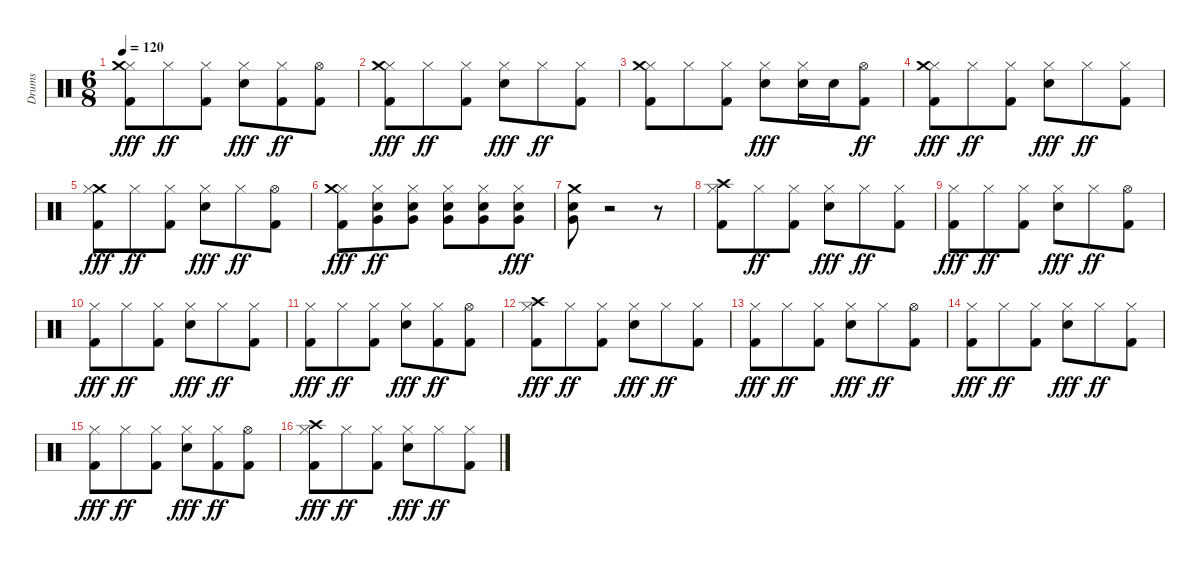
\track ("Drums" "Drums") {instrument percussion}
\staff {score}
\articulation defaults
\ts (6 8)
\tempo 120
\clef neutral
\ks c
("Hi-Hat (closed)" "Kick (hit) 2" "Crash medium (hit)").8{dy fff} "Hi-Hat (closed)".8{dy ff} ("Hi-Hat (closed)" "Kick (hit) 2").8 ("Hi-Hat (closed)" "Snare (hit) 2").8{dy fff} ("Hi-Hat (closed)" "Kick (hit) 2").8{dy ff} ("Hi-Hat (open)" "Kick (hit) 2").8 |
("Hi-Hat (closed)" "Kick (hit) 2" "Crash medium (hit)").8{dy fff} "Hi-Hat (closed)".8{dy ff} ("Hi-Hat (closed)" "Kick (hit) 2").8 ("Hi-Hat (closed)" "Snare (hit) 2").8{dy fff} "Hi-Hat (closed)".8{dy ff} ("Hi-Hat (closed)" "Kick (hit) 2").8 |
("Hi-Hat (closed)" "Kick (hit) 2" "Crash medium (hit)").8 "Hi-Hat (closed)".8 ("Hi-Hat (closed)" "Kick (hit) 2").8 ("Hi-Hat (closed)" "Snare (hit) 2").8{dy fff} ("Hi-Hat (closed)" "Snare (hit) 2").16 "Snare (hit) 2".16 ("Hi-Hat (open)" "Kick (hit) 2").8{dy ff} |
("Hi-Hat (closed)" "Kick (hit) 2" "Crash medium (hit)").8{dy fff} "Hi-Hat (closed)".8{dy ff} ("Hi-Hat (closed)" "Kick (hit) 2").8 ("Hi-Hat (closed)" "Snare (hit) 2").8{dy fff} "Hi-Hat (closed)".8{dy ff} ("Hi-Hat (closed)" "Kick (hit) 2").8 |
("Crash medium (hit)" "Hi-Hat (closed)" "Kick (hit) 2").8{dy fff} "Hi-Hat (closed)".8{dy ff} ("Hi-Hat (closed)" "Kick (hit) 2").8 ("Hi-Hat (closed)" "Snare (hit) 2").8{dy fff} "Hi-Hat (closed)".8{dy ff} ("Hi-Hat (open)" "Kick (hit) 2").8 |
("Hi-Hat (closed)" "Kick (hit) 2" "Crash medium (hit)").8{dy fff} ("Hi-Hat (closed)" "Snare (hit) 2" "Very Low Tom (hit)").8{dy ff} ("Hi-Hat (closed)" "Very Low Tom (hit)" "Snare (hit) 2").8 ("Hi-Hat (closed)" "Very Low Tom (hit)" "Snare (hit) 2").8 ("Hi-Hat (closed)" "Very Low Tom (hit)" "Snare (hit) 2").8 ("Hi-Hat (closed)" "Very Low Tom (hit)" "Snare (hit) 2").8{dy fff} |
("Crash medium (hit)" "Very Low Tom (hit)" "Snare (hit) 2").8 r.2 r.8 |
("Hi-Hat (closed)" "Kick (hit) 2" "Crash high (hit)").8 "Hi-Hat (closed)".8{dy ff} ("Hi-Hat (closed)" "Kick (hit) 2").8 ("Hi-Hat (closed)" "Snare (hit) 2").8{dy fff} "Hi-Hat (closed)".8{dy ff} ("Hi-Hat (closed)" "Kick (hit) 2").8 |
("Hi-Hat (closed)" "Kick (hit) 2").8{dy fff} "Hi-Hat (closed)".8{dy ff} ("Hi-Hat (closed)" "Kick (hit) 2").8 ("Hi-Hat (closed)" "Snare (hit) 2").8{dy fff} "Hi-Hat (closed)".8{dy ff} ("Hi-Hat (open)" "Kick (hit) 2").8 |
("Hi-Hat (closed)" "Kick (hit) 2").8{dy fff} "Hi-Hat (closed)".8{dy ff} ("Hi-Hat (closed)" "Kick (hit) 2").8 ("Hi-Hat (closed)" "Snare (hit) 2").8{dy fff} "Hi-Hat (closed)".8{dy ff} ("Hi-Hat (closed)" "Kick (hit) 2").8 |
("Hi-Hat (closed)" "Kick (hit) 2").8{dy fff} "Hi-Hat (closed)".8{dy ff} ("Hi-Hat (closed)" "Kick (hit) 2").8 ("Hi-Hat (closed)" "Snare (hit) 2").8{dy fff} ("Hi-Hat (closed)" "Kick (hit) 2").8{dy ff} ("Hi-Hat (open)" "Kick (hit) 2").8 |
("Crash high (hit)" "Hi-Hat (closed)" "Kick (hit) 2").8{dy fff} "Hi-Hat (closed)".8{dy ff} ("Hi-Hat (closed)" "Kick (hit) 2").8 ("Hi-Hat (closed)" "Snare (hit) 2").8{dy fff} "Hi-Hat (closed)".8{dy ff} ("Hi-Hat (closed)" "Kick (hit) 2").8 |
("Hi-Hat (closed)" "Kick (hit) 2").8{dy fff} "Hi-Hat (closed)".8{dy ff} ("Hi-Hat (closed)" "Kick (hit) 2").8 ("Hi-Hat (closed)" "Snare (hit) 2").8{dy fff} "Hi-Hat (closed)".8{dy ff} ("Hi-Hat (open)" "Kick (hit) 2").8 |
("Hi-Hat (closed)" "Kick (hit) 2").8{dy fff} "Hi-Hat (closed)".8{dy ff} ("Hi-Hat (closed)" "Kick (hit) 2").8 ("Hi-Hat (closed)" "Snare (hit) 2").8{dy fff} "Hi-Hat (closed)".8{dy ff} ("Hi-Hat (closed)" "Kick (hit) 2").8 |
("Hi-Hat (closed)" "Kick (hit) 2").8{dy fff} "Hi-Hat (closed)".8{dy ff} ("Hi-Hat (closed)" "Kick (hit) 2").8 ("Hi-Hat (closed)" "Snare (hit) 2").8{dy fff} ("Hi-Hat (closed)" "Kick (hit) 2").8{dy ff} ("Hi-Hat (open)" "Kick (hit) 2").8 |
("Hi-Hat (closed)" "Kick (hit) 2" "Crash high (hit)").8{dy fff} "Hi-Hat (closed)".8{dy ff} ("Hi-Hat (closed)" "Kick (hit) 2").8 ("Hi-Hat (closed)" "Snare (hit) 2").8{dy fff} "Hi-Hat (closed)".8{dy ff} ("Hi-Hat (closed)" "Kick (hit) 2").8
